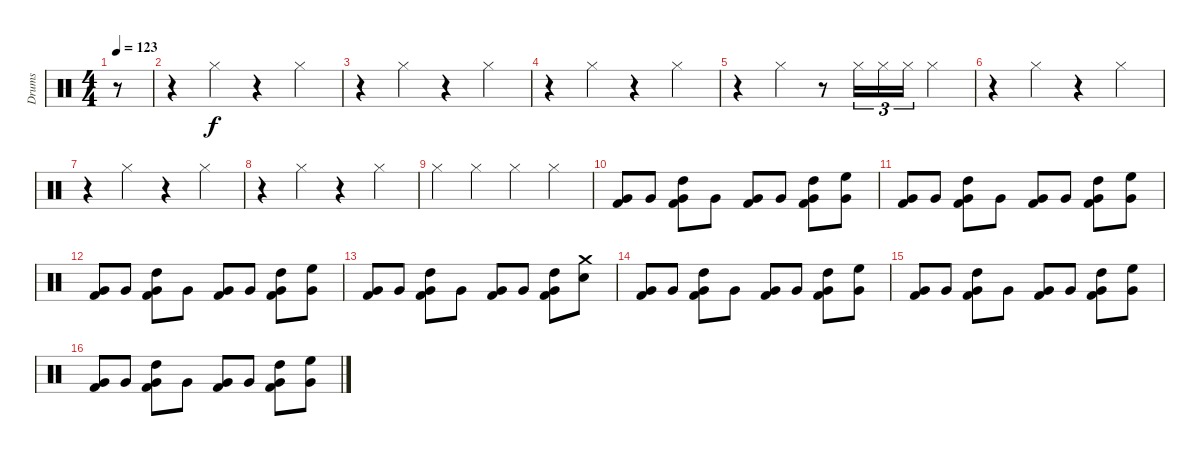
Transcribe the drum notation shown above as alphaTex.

\track ("Drums" "Drums") {instrument percussion}
\staff {score}
\articulation defaults
\ts (4 4)
\tempo 123
\clef neutral
\ks c
r.8{dy f} |
r.4 "Hi-Hat (closed)".4 r.4 "Hi-Hat (closed)".4 |
r.4 "Hi-Hat (closed)".4 r.4 "Hi-Hat (closed)".4 |
r.4 "Hi-Hat (closed)".4 r.4 "Hi-Hat (closed)".4 |
r.4 "Hi-Hat (closed)".4 r.8 "Hi-Hat (closed)".16{tu (3 2)} "Hi-Hat (closed)".16{tu (3 2)} "Hi-Hat (closed)".16{tu (3 2)} "Hi-Hat (closed)".4 |
r.4 "Hi-Hat (closed)".4 r.4 "Hi-Hat (closed)".4 |
r.4 "Hi-Hat (closed)".4 r.4 "Hi-Hat (closed)".4 |
r.4 "Hi-Hat (closed)".4 r.4 "Hi-Hat (closed)".4 |
"Hi-Hat (closed)".4 "Hi-Hat (closed)".4 "Hi-Hat (closed)".4 "Hi-Hat (closed)".4 |
("Very Low Tom (hit)" "Kick (hit) 2").8 "Very Low Tom (hit)".8 ("High Tom (hit)" "Very Low Tom (hit)" "Kick (hit) 2").8 "Very Low Tom (hit)".8 ("Very Low Tom (hit)" "Kick (hit) 2").8 "Very Low Tom (hit)".8 ("High Tom (hit)" "Very Low Tom (hit)" "Kick (hit) 2").8 ("High Floor Tom (hit)" "Very Low Tom (hit)").8 |
("Very Low Tom (hit)" "Kick (hit) 2").8 "Very Low Tom (hit)".8 ("High Tom (hit)" "Very Low Tom (hit)" "Kick (hit) 2").8 "Very Low Tom (hit)".8 ("Very Low Tom (hit)" "Kick (hit) 2").8 "Very Low Tom (hit)".8 ("High Tom (hit)" "Very Low Tom (hit)" "Kick (hit) 2").8 ("High Floor Tom (hit)" "Very Low Tom (hit)").8 |
("Very Low Tom (hit)" "Kick (hit) 2").8 "Very Low Tom (hit)".8 ("High Tom (hit)" "Very Low Tom (hit)" "Kick (hit) 2").8 "Very Low Tom (hit)".8 ("Very Low Tom (hit)" "Kick (hit) 2").8 "Very Low Tom (hit)".8 ("High Tom (hit)" "Very Low Tom (hit)" "Kick (hit) 2").8 ("High Floor Tom (hit)" "Very Low Tom (hit)").8 |
("Very Low Tom (hit)" "Kick (hit) 2").8 "Very Low Tom (hit)".8 ("High Tom (hit)" "Very Low Tom (hit)" "Kick (hit) 2").8 "Very Low Tom (hit)".8 ("Very Low Tom (hit)" "Kick (hit) 2").8 "Very Low Tom (hit)".8 ("High Tom (hit)" "Very Low Tom (hit)" "Kick (hit) 2").8 ("Snare (hit) 2" "Crash medium (hit)").8 |
("Very Low Tom (hit)" "Kick (hit) 2").8 "Very Low Tom (hit)".8 ("High Tom (hit)" "Very Low Tom (hit)" "Kick (hit) 2").8 "Very Low Tom (hit)".8 ("Very Low Tom (hit)" "Kick (hit) 2").8 "Very Low Tom (hit)".8 ("High Tom (hit)" "Very Low Tom (hit)" "Kick (hit) 2").8 ("High Floor Tom (hit)" "Very Low Tom (hit)").8 |
("Very Low Tom (hit)" "Kick (hit) 2").8 "Very Low Tom (hit)".8 ("High Tom (hit)" "Very Low Tom (hit)" "Kick (hit) 2").8 "Very Low Tom (hit)".8 ("Very Low Tom (hit)" "Kick (hit) 2").8 "Very Low Tom (hit)".8 ("High Tom (hit)" "Very Low Tom (hit)" "Kick (hit) 2").8 ("High Floor Tom (hit)" "Very Low Tom (hit)").8 |
("Very Low Tom (hit)" "Kick (hit) 2").8 "Very Low Tom (hit)".8 ("High Tom (hit)" "Very Low Tom (hit)" "Kick (hit) 2").8 "Very Low Tom (hit)".8 ("Very Low Tom (hit)" "Kick (hit) 2").8 "Very Low Tom (hit)".8 ("High Tom (hit)" "Very Low Tom (hit)" "Kick (hit) 2").8 ("High Floor Tom (hit)" "Very Low Tom (hit)").8
